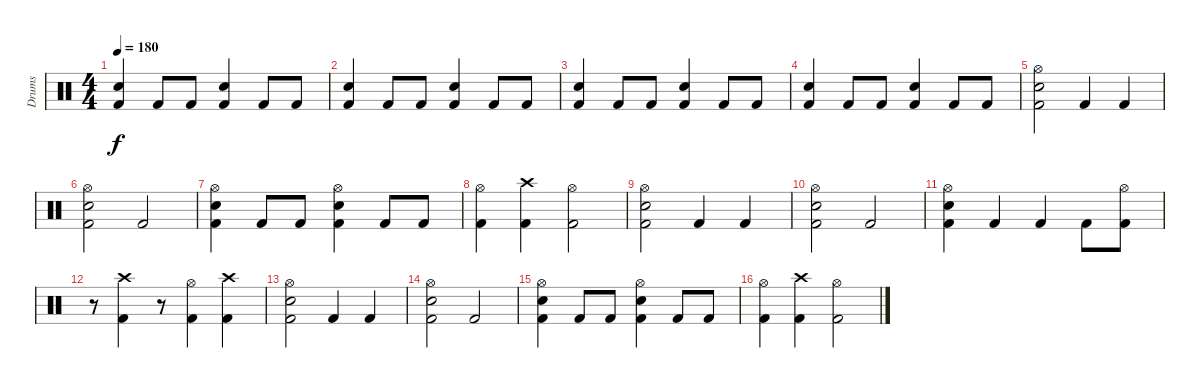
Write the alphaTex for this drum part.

\track ("Drums" "Drums") {instrument percussion}
\staff {score}
\articulation defaults
\ts (4 4)
\tempo 180
\clef neutral
\ks c
("Kick (hit) 2" "Snare (hit) 2").4{dy f} "Kick (hit) 2".8 "Kick (hit) 2".8 ("Kick (hit) 2" "Snare (hit) 2").4 "Kick (hit) 2".8 "Kick (hit) 2".8 |
("Kick (hit) 2" "Snare (hit) 2").4 "Kick (hit) 2".8 "Kick (hit) 2".8 ("Kick (hit) 2" "Snare (hit) 2").4 "Kick (hit) 2".8 "Kick (hit) 2".8 |
("Kick (hit) 2" "Snare (hit) 2").4 "Kick (hit) 2".8 "Kick (hit) 2".8 ("Kick (hit) 2" "Snare (hit) 2").4 "Kick (hit) 2".8 "Kick (hit) 2".8 |
("Kick (hit) 2" "Snare (hit) 2").4 "Kick (hit) 2".8 "Kick (hit) 2".8 ("Kick (hit) 2" "Snare (hit) 2").4 "Kick (hit) 2".8 "Kick (hit) 2".8 |
("Kick (hit) 2" "Snare (hit) 2" "Hi-Hat (open)").2 "Kick (hit) 2".4 "Kick (hit) 2".4 |
("Kick (hit) 2" "Snare (hit) 2" "Hi-Hat (open)").2 "Kick (hit) 2".2 |
("Kick (hit) 2" "Snare (hit) 2" "Hi-Hat (open)").4 "Kick (hit) 2".8 "Kick (hit) 2".8 ("Kick (hit) 2" "Snare (hit) 2" "Hi-Hat (open)").4 "Kick (hit) 2".8 "Kick (hit) 2".8 |
("Kick (hit) 2" "Hi-Hat (open)").4 ("Kick (hit) 2" "Crash high (hit)").4 ("Kick (hit) 2" "Hi-Hat (open)").2 |
("Kick (hit) 2" "Snare (hit) 2" "Hi-Hat (open)").2 "Kick (hit) 2".4 "Kick (hit) 2".4 |
("Kick (hit) 2" "Snare (hit) 2" "Hi-Hat (open)").2 "Kick (hit) 2".2 |
("Kick (hit) 2" "Snare (hit) 2" "Hi-Hat (open)").4 "Kick (hit) 2".4 "Kick (hit) 2".4 "Kick (hit) 2".8 ("Kick (hit) 2" "Hi-Hat (open)").8 |
r.8 ("Kick (hit) 2" "Crash high (hit)").4 r.8 ("Kick (hit) 2" "Hi-Hat (open)").4 ("Kick (hit) 2" "Crash high (hit)").4 |
("Kick (hit) 2" "Snare (hit) 2" "Hi-Hat (open)").2 "Kick (hit) 2".4 "Kick (hit) 2".4 |
("Kick (hit) 2" "Snare (hit) 2" "Hi-Hat (open)").2 "Kick (hit) 2".2 |
("Kick (hit) 2" "Snare (hit) 2" "Hi-Hat (open)").4 "Kick (hit) 2".8 "Kick (hit) 2".8 ("Kick (hit) 2" "Snare (hit) 2" "Hi-Hat (open)").4 "Kick (hit) 2".8 "Kick (hit) 2".8 |
("Kick (hit) 2" "Hi-Hat (open)").4 ("Kick (hit) 2" "Crash high (hit)").4 ("Kick (hit) 2" "Hi-Hat (open)").2
